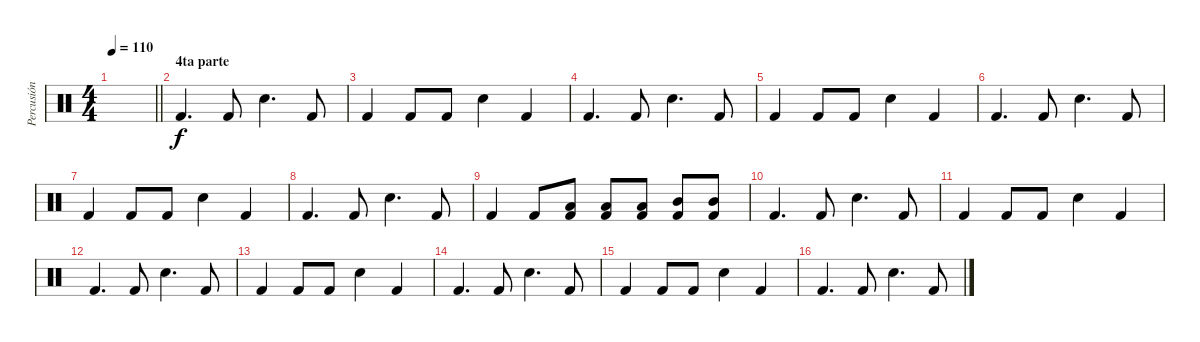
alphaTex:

\track ("Percusión" "Percusión") {instrument percussion}
\staff {score}
\articulation defaults
\ts (4 4)
\tempo 110
\clef neutral
\barLineRight lightlight
\ks c
|
\section ("" "4ta parte")
"Kick (hit) 2".4{d} "Kick (hit) 2".8 "Electric Snare (hit)".4{d} "Kick (hit) 2".8 |
"Kick (hit) 2".4 "Kick (hit) 2".8 "Kick (hit) 2".8 "Electric Snare (hit)".4 "Kick (hit) 2".4 |
"Kick (hit) 2".4{d} "Kick (hit) 2".8 "Electric Snare (hit)".4{d} "Kick (hit) 2".8 |
"Kick (hit) 2".4 "Kick (hit) 2".8 "Kick (hit) 2".8 "Electric Snare (hit)".4 "Kick (hit) 2".4 |
"Kick (hit) 2".4{d} "Kick (hit) 2".8 "Electric Snare (hit)".4{d} "Kick (hit) 2".8 |
"Kick (hit) 2".4 "Kick (hit) 2".8 "Kick (hit) 2".8 "Electric Snare (hit)".4 "Kick (hit) 2".4 |
"Kick (hit) 2".4{d} "Kick (hit) 2".8 "Electric Snare (hit)".4{d} "Kick (hit) 2".8 |
"Kick (hit) 2".4 "Kick (hit) 2".8 ("Low Tom (hit)" "Kick (hit) 2").8 ("Low Tom (hit)" "Kick (hit) 2").8 ("Low Tom (hit)" "Kick (hit) 2").8 ("Mid Tom (hit)" "Kick (hit) 2").8 ("Mid Tom (hit)" "Kick (hit) 2").8 |
"Kick (hit) 2".4{d} "Kick (hit) 2".8 "Electric Snare (hit)".4{d} "Kick (hit) 2".8 |
"Kick (hit) 2".4 "Kick (hit) 2".8 "Kick (hit) 2".8 "Electric Snare (hit)".4 "Kick (hit) 2".4 |
"Kick (hit) 2".4{d} "Kick (hit) 2".8 "Electric Snare (hit)".4{d} "Kick (hit) 2".8 |
"Kick (hit) 2".4 "Kick (hit) 2".8 "Kick (hit) 2".8 "Electric Snare (hit)".4 "Kick (hit) 2".4 |
"Kick (hit) 2".4{d} "Kick (hit) 2".8 "Electric Snare (hit)".4{d} "Kick (hit) 2".8 |
"Kick (hit) 2".4 "Kick (hit) 2".8 "Kick (hit) 2".8 "Electric Snare (hit)".4 "Kick (hit) 2".4 |
"Kick (hit) 2".4{d} "Kick (hit) 2".8 "Electric Snare (hit)".4{d} "Kick (hit) 2".8
